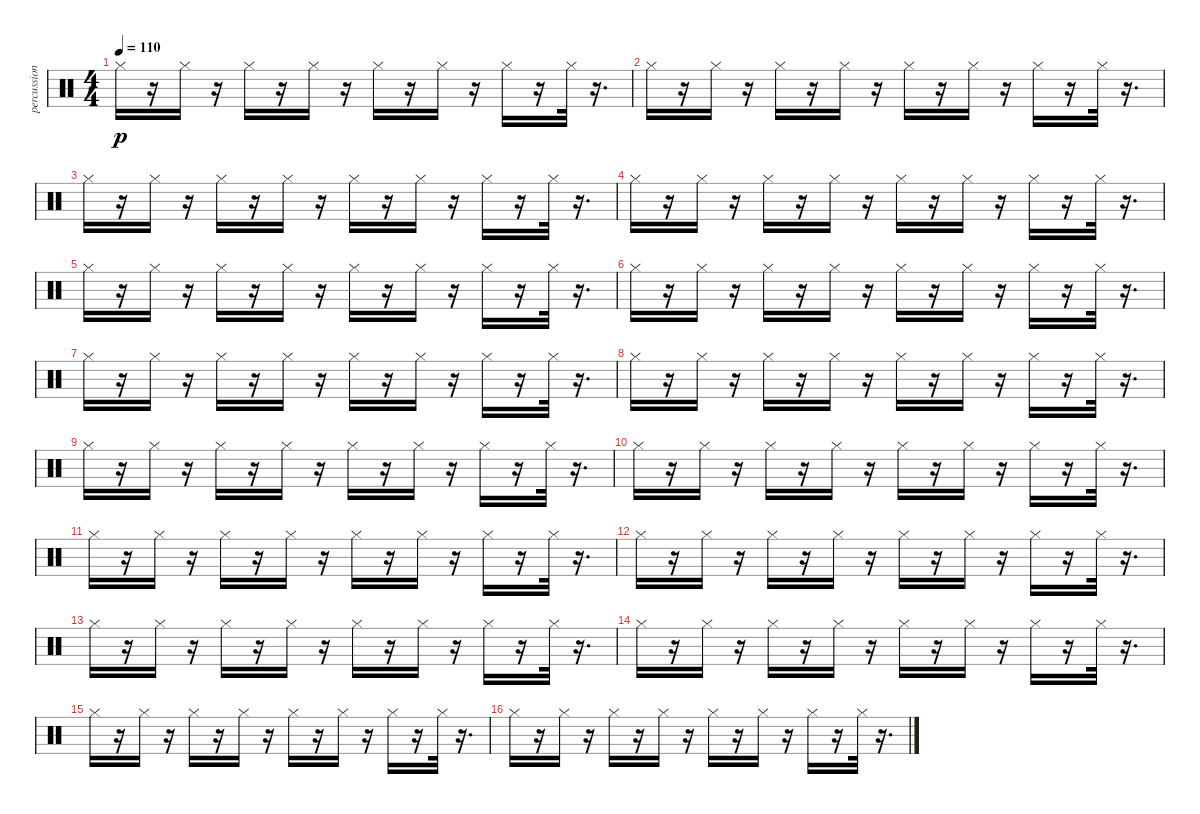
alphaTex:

\track ("percussions 2" "percussion") {instrument percussion}
\staff {score}
\articulation defaults
\ts (4 4)
\tempo 110
\clef neutral
\ks c "Hi-Hat (closed)".16{dy p}
r.16 "Hi-Hat (closed)".16 r.16 "Hi-Hat (closed)".16 r.16 "Hi-Hat (closed)".16 r.16 "Hi-Hat (closed)".16 r.16 "Hi-Hat (closed)".16 r.16 "Hi-Hat (closed)".16 r.16 "Hi-Hat (closed)".32 r.16{d} |
"Hi-Hat (closed)".16 r.16 "Hi-Hat (closed)".16 r.16 "Hi-Hat (closed)".16 r.16 "Hi-Hat (closed)".16 r.16 "Hi-Hat (closed)".16 r.16 "Hi-Hat (closed)".16 r.16 "Hi-Hat (closed)".16 r.16 "Hi-Hat (closed)".32 r.16{d} |
"Hi-Hat (closed)".16 r.16 "Hi-Hat (closed)".16 r.16 "Hi-Hat (closed)".16 r.16 "Hi-Hat (closed)".16 r.16 "Hi-Hat (closed)".16 r.16 "Hi-Hat (closed)".16 r.16 "Hi-Hat (closed)".16 r.16 "Hi-Hat (closed)".32 r.16{d} |
"Hi-Hat (closed)".16 r.16 "Hi-Hat (closed)".16 r.16 "Hi-Hat (closed)".16 r.16 "Hi-Hat (closed)".16 r.16 "Hi-Hat (closed)".16 r.16 "Hi-Hat (closed)".16 r.16 "Hi-Hat (closed)".16 r.16 "Hi-Hat (closed)".32 r.16{d} |
"Hi-Hat (closed)".16 r.16 "Hi-Hat (closed)".16 r.16 "Hi-Hat (closed)".16 r.16 "Hi-Hat (closed)".16 r.16 "Hi-Hat (closed)".16 r.16 "Hi-Hat (closed)".16 r.16 "Hi-Hat (closed)".16 r.16 "Hi-Hat (closed)".32 r.16{d} |
"Hi-Hat (closed)".16 r.16 "Hi-Hat (closed)".16 r.16 "Hi-Hat (closed)".16 r.16 "Hi-Hat (closed)".16 r.16 "Hi-Hat (closed)".16 r.16 "Hi-Hat (closed)".16 r.16 "Hi-Hat (closed)".16 r.16 "Hi-Hat (closed)".32 r.16{d} |
"Hi-Hat (closed)".16 r.16 "Hi-Hat (closed)".16 r.16 "Hi-Hat (closed)".16 r.16 "Hi-Hat (closed)".16 r.16 "Hi-Hat (closed)".16 r.16 "Hi-Hat (closed)".16 r.16 "Hi-Hat (closed)".16 r.16 "Hi-Hat (closed)".32 r.16{d} |
"Hi-Hat (closed)".16 r.16 "Hi-Hat (closed)".16 r.16 "Hi-Hat (closed)".16 r.16 "Hi-Hat (closed)".16 r.16 "Hi-Hat (closed)".16 r.16 "Hi-Hat (closed)".16 r.16 "Hi-Hat (closed)".16 r.16 "Hi-Hat (closed)".32 r.16{d} |
"Hi-Hat (closed)".16 r.16 "Hi-Hat (closed)".16 r.16 "Hi-Hat (closed)".16 r.16 "Hi-Hat (closed)".16 r.16 "Hi-Hat (closed)".16 r.16 "Hi-Hat (closed)".16 r.16 "Hi-Hat (closed)".16 r.16 "Hi-Hat (closed)".32 r.16{d} |
"Hi-Hat (closed)".16 r.16 "Hi-Hat (closed)".16 r.16 "Hi-Hat (closed)".16 r.16 "Hi-Hat (closed)".16 r.16 "Hi-Hat (closed)".16 r.16 "Hi-Hat (closed)".16 r.16 "Hi-Hat (closed)".16 r.16 "Hi-Hat (closed)".32 r.16{d} |
"Hi-Hat (closed)".16 r.16 "Hi-Hat (closed)".16 r.16 "Hi-Hat (closed)".16 r.16 "Hi-Hat (closed)".16 r.16 "Hi-Hat (closed)".16 r.16 "Hi-Hat (closed)".16 r.16 "Hi-Hat (closed)".16 r.16 "Hi-Hat (closed)".32 r.16{d} |
"Hi-Hat (closed)".16 r.16 "Hi-Hat (closed)".16 r.16 "Hi-Hat (closed)".16 r.16 "Hi-Hat (closed)".16 r.16 "Hi-Hat (closed)".16 r.16 "Hi-Hat (closed)".16 r.16 "Hi-Hat (closed)".16 r.16 "Hi-Hat (closed)".32 r.16{d} |
"Hi-Hat (closed)".16 r.16 "Hi-Hat (closed)".16 r.16 "Hi-Hat (closed)".16 r.16 "Hi-Hat (closed)".16 r.16 "Hi-Hat (closed)".16 r.16 "Hi-Hat (closed)".16 r.16 "Hi-Hat (closed)".16 r.16 "Hi-Hat (closed)".32 r.16{d} |
"Hi-Hat (closed)".16 r.16 "Hi-Hat (closed)".16 r.16 "Hi-Hat (closed)".16 r.16 "Hi-Hat (closed)".16 r.16 "Hi-Hat (closed)".16 r.16 "Hi-Hat (closed)".16 r.16 "Hi-Hat (closed)".16 r.16 "Hi-Hat (closed)".32 r.16{d} |
"Hi-Hat (closed)".16 r.16 "Hi-Hat (closed)".16 r.16 "Hi-Hat (closed)".16 r.16 "Hi-Hat (closed)".16 r.16 "Hi-Hat (closed)".16 r.16 "Hi-Hat (closed)".16 r.16 "Hi-Hat (closed)".16 r.16 "Hi-Hat (closed)".32 r.16{d} |
"Hi-Hat (closed)".16 r.16 "Hi-Hat (closed)".16 r.16 "Hi-Hat (closed)".16 r.16 "Hi-Hat (closed)".16 r.16 "Hi-Hat (closed)".16 r.16 "Hi-Hat (closed)".16 r.16 "Hi-Hat (closed)".16 r.16 "Hi-Hat (closed)".32 r.16{d}
